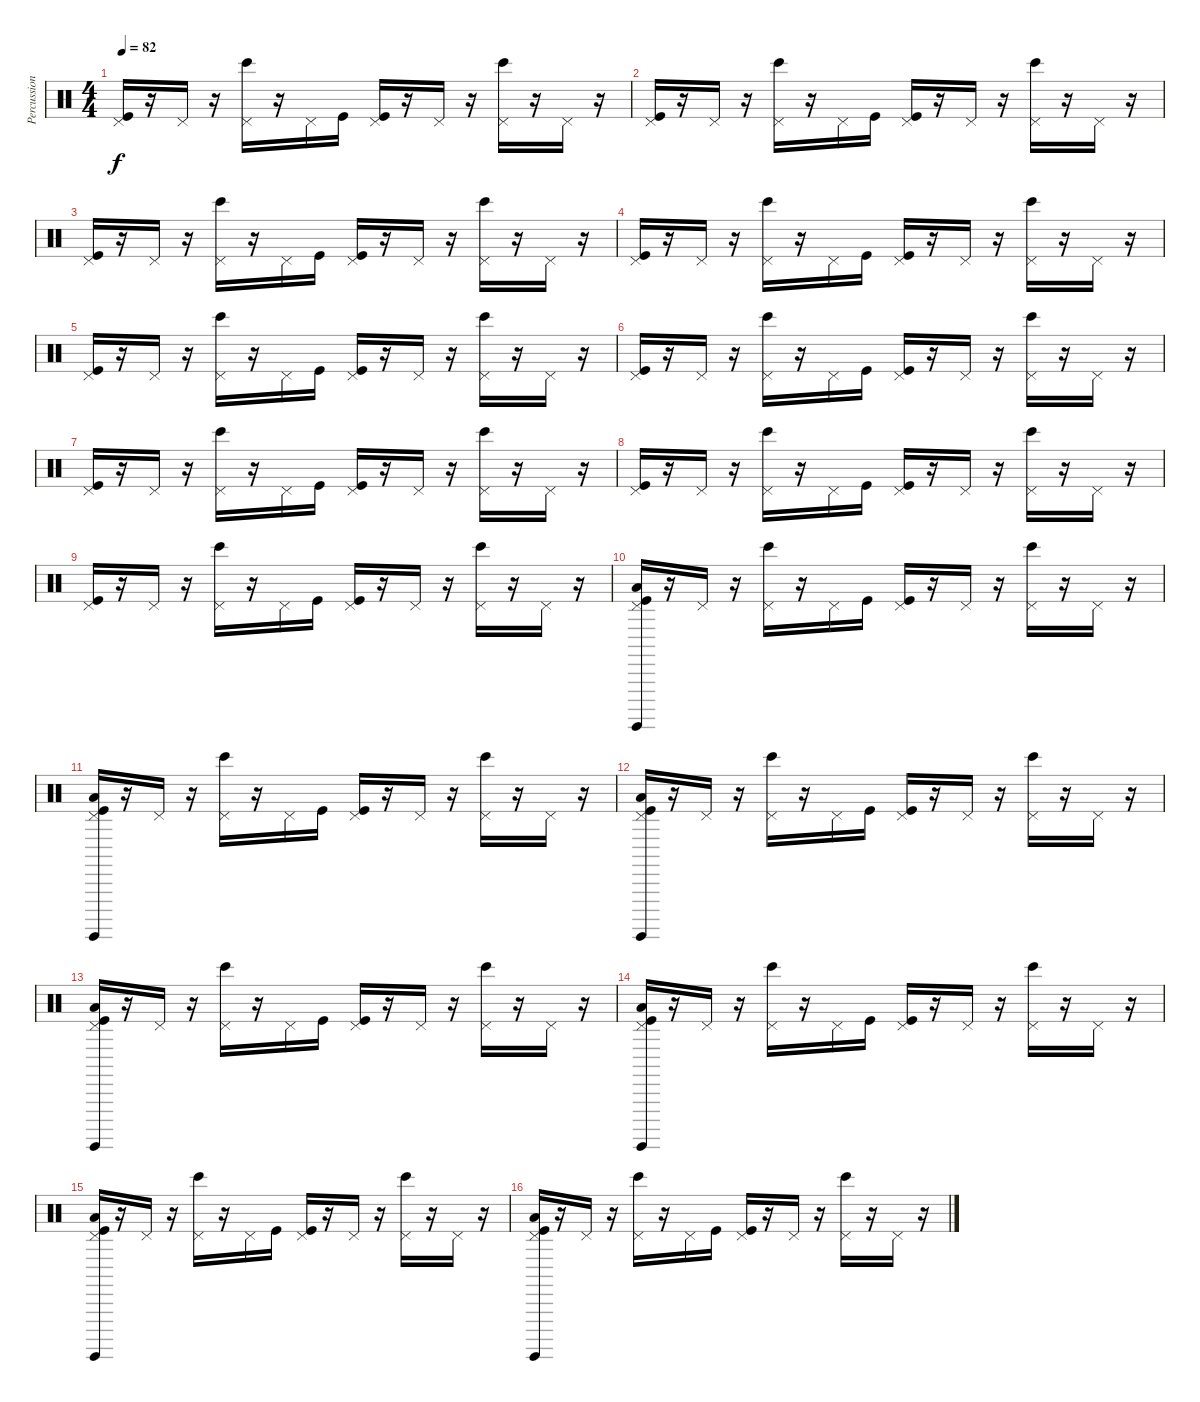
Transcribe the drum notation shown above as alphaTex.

\track ("Percussions" "Percussion") {instrument percussion}
\staff {score}
\articulation defaults
\ts (4 4)
\tempo 82
\clef neutral
\ks c
("Pedal Hi-Hat (hit)" "Kick (hit)").16{dy f} r.16 "Pedal Hi-Hat (hit)".16 r.16 ("Pedal Hi-Hat (hit)" "Bongo High (hit)").16 r.16 "Pedal Hi-Hat (hit)".16 "Kick (hit)".16 ("Pedal Hi-Hat (hit)" "Kick (hit)").16 r.16 "Pedal Hi-Hat (hit)".16 r.16 ("Pedal Hi-Hat (hit)" "Bongo High (hit)").16 r.16 "Pedal Hi-Hat (hit)".16 r.16 |
("Pedal Hi-Hat (hit)" "Kick (hit)").16 r.16 "Pedal Hi-Hat (hit)".16 r.16 ("Pedal Hi-Hat (hit)" "Bongo High (hit)").16 r.16 "Pedal Hi-Hat (hit)".16 "Kick (hit)".16 ("Pedal Hi-Hat (hit)" "Kick (hit)").16 r.16 "Pedal Hi-Hat (hit)".16 r.16 ("Pedal Hi-Hat (hit)" "Bongo High (hit)").16 r.16 "Pedal Hi-Hat (hit)".16 r.16 |
("Pedal Hi-Hat (hit)" "Kick (hit)").16 r.16 "Pedal Hi-Hat (hit)".16 r.16 ("Pedal Hi-Hat (hit)" "Bongo High (hit)").16 r.16 "Pedal Hi-Hat (hit)".16 "Kick (hit)".16 ("Pedal Hi-Hat (hit)" "Kick (hit)").16 r.16 "Pedal Hi-Hat (hit)".16 r.16 ("Pedal Hi-Hat (hit)" "Bongo High (hit)").16 r.16 "Pedal Hi-Hat (hit)".16 r.16 |
("Pedal Hi-Hat (hit)" "Kick (hit)").16 r.16 "Pedal Hi-Hat (hit)".16 r.16 ("Pedal Hi-Hat (hit)" "Bongo High (hit)").16 r.16 "Pedal Hi-Hat (hit)".16 "Kick (hit)".16 ("Pedal Hi-Hat (hit)" "Kick (hit)").16 r.16 "Pedal Hi-Hat (hit)".16 r.16 ("Pedal Hi-Hat (hit)" "Bongo High (hit)").16 r.16 "Pedal Hi-Hat (hit)".16 r.16 |
("Pedal Hi-Hat (hit)" "Kick (hit)").16 r.16 "Pedal Hi-Hat (hit)".16 r.16 ("Pedal Hi-Hat (hit)" "Bongo High (hit)").16 r.16 "Pedal Hi-Hat (hit)".16 "Kick (hit)".16 ("Pedal Hi-Hat (hit)" "Kick (hit)").16 r.16 "Pedal Hi-Hat (hit)".16 r.16 ("Pedal Hi-Hat (hit)" "Bongo High (hit)").16 r.16 "Pedal Hi-Hat (hit)".16 r.16 |
("Pedal Hi-Hat (hit)" "Kick (hit)").16 r.16 "Pedal Hi-Hat (hit)".16 r.16 ("Pedal Hi-Hat (hit)" "Bongo High (hit)").16 r.16 "Pedal Hi-Hat (hit)".16 "Kick (hit)".16 ("Pedal Hi-Hat (hit)" "Kick (hit)").16 r.16 "Pedal Hi-Hat (hit)".16 r.16 ("Pedal Hi-Hat (hit)" "Bongo High (hit)").16 r.16 "Pedal Hi-Hat (hit)".16 r.16 |
("Pedal Hi-Hat (hit)" "Kick (hit)").16 r.16 "Pedal Hi-Hat (hit)".16 r.16 ("Pedal Hi-Hat (hit)" "Bongo High (hit)").16 r.16 "Pedal Hi-Hat (hit)".16 "Kick (hit)".16 ("Pedal Hi-Hat (hit)" "Kick (hit)").16 r.16 "Pedal Hi-Hat (hit)".16 r.16 ("Pedal Hi-Hat (hit)" "Bongo High (hit)").16 r.16 "Pedal Hi-Hat (hit)".16 r.16 |
("Pedal Hi-Hat (hit)" "Kick (hit)").16 r.16 "Pedal Hi-Hat (hit)".16 r.16 ("Pedal Hi-Hat (hit)" "Bongo High (hit)").16 r.16 "Pedal Hi-Hat (hit)".16 "Kick (hit)".16 ("Pedal Hi-Hat (hit)" "Kick (hit)").16 r.16 "Pedal Hi-Hat (hit)".16 r.16 ("Pedal Hi-Hat (hit)" "Bongo High (hit)").16 r.16 "Pedal Hi-Hat (hit)".16 r.16 |
("Pedal Hi-Hat (hit)" "Kick (hit)").16 r.16 "Pedal Hi-Hat (hit)".16 r.16 ("Pedal Hi-Hat (hit)" "Bongo High (hit)").16 r.16 "Pedal Hi-Hat (hit)".16 "Kick (hit)".16 ("Pedal Hi-Hat (hit)" "Kick (hit)").16 r.16 "Pedal Hi-Hat (hit)".16 r.16 ("Pedal Hi-Hat (hit)" "Bongo High (hit)").16 r.16 "Pedal Hi-Hat (hit)".16 r.16 |
("Pedal Hi-Hat (hit)" "Low Floor Tom (hit)" "Surdo (hit)" "Kick (hit)").16 r.16 "Pedal Hi-Hat (hit)".16 r.16 ("Pedal Hi-Hat (hit)" "Bongo High (hit)").16 r.16 "Pedal Hi-Hat (hit)".16 "Kick (hit)".16 ("Pedal Hi-Hat (hit)" "Kick (hit)").16 r.16 "Pedal Hi-Hat (hit)".16 r.16 ("Pedal Hi-Hat (hit)" "Bongo High (hit)").16 r.16 "Pedal Hi-Hat (hit)".16 r.16 |
("Pedal Hi-Hat (hit)" "Low Floor Tom (hit)" "Surdo (hit)" "Kick (hit)").16 r.16 "Pedal Hi-Hat (hit)".16 r.16 ("Pedal Hi-Hat (hit)" "Bongo High (hit)").16 r.16 "Pedal Hi-Hat (hit)".16 "Kick (hit)".16 ("Pedal Hi-Hat (hit)" "Kick (hit)").16 r.16 "Pedal Hi-Hat (hit)".16 r.16 ("Pedal Hi-Hat (hit)" "Bongo High (hit)").16 r.16 "Pedal Hi-Hat (hit)".16 r.16 |
("Pedal Hi-Hat (hit)" "Low Floor Tom (hit)" "Surdo (hit)" "Kick (hit)").16 r.16 "Pedal Hi-Hat (hit)".16 r.16 ("Pedal Hi-Hat (hit)" "Bongo High (hit)").16 r.16 "Pedal Hi-Hat (hit)".16 "Kick (hit)".16 ("Pedal Hi-Hat (hit)" "Kick (hit)").16 r.16 "Pedal Hi-Hat (hit)".16 r.16 ("Pedal Hi-Hat (hit)" "Bongo High (hit)").16 r.16 "Pedal Hi-Hat (hit)".16 r.16 |
("Pedal Hi-Hat (hit)" "Low Floor Tom (hit)" "Surdo (hit)" "Kick (hit)").16 r.16 "Pedal Hi-Hat (hit)".16 r.16 ("Pedal Hi-Hat (hit)" "Bongo High (hit)").16 r.16 "Pedal Hi-Hat (hit)".16 "Kick (hit)".16 ("Pedal Hi-Hat (hit)" "Kick (hit)").16 r.16 "Pedal Hi-Hat (hit)".16 r.16 ("Pedal Hi-Hat (hit)" "Bongo High (hit)").16 r.16 "Pedal Hi-Hat (hit)".16 r.16 |
("Pedal Hi-Hat (hit)" "Low Floor Tom (hit)" "Surdo (hit)" "Kick (hit)").16 r.16 "Pedal Hi-Hat (hit)".16 r.16 ("Pedal Hi-Hat (hit)" "Bongo High (hit)").16 r.16 "Pedal Hi-Hat (hit)".16 "Kick (hit)".16 ("Pedal Hi-Hat (hit)" "Kick (hit)").16 r.16 "Pedal Hi-Hat (hit)".16 r.16 ("Pedal Hi-Hat (hit)" "Bongo High (hit)").16 r.16 "Pedal Hi-Hat (hit)".16 r.16 |
("Pedal Hi-Hat (hit)" "Low Floor Tom (hit)" "Surdo (hit)" "Kick (hit)").16 r.16 "Pedal Hi-Hat (hit)".16 r.16 ("Pedal Hi-Hat (hit)" "Bongo High (hit)").16 r.16 "Pedal Hi-Hat (hit)".16 "Kick (hit)".16 ("Pedal Hi-Hat (hit)" "Kick (hit)").16 r.16 "Pedal Hi-Hat (hit)".16 r.16 ("Pedal Hi-Hat (hit)" "Bongo High (hit)").16 r.16 "Pedal Hi-Hat (hit)".16 r.16 |
("Pedal Hi-Hat (hit)" "Low Floor Tom (hit)" "Surdo (hit)" "Kick (hit)").16 r.16 "Pedal Hi-Hat (hit)".16 r.16 ("Pedal Hi-Hat (hit)" "Bongo High (hit)").16 r.16 "Pedal Hi-Hat (hit)".16 "Kick (hit)".16 ("Pedal Hi-Hat (hit)" "Kick (hit)").16 r.16 "Pedal Hi-Hat (hit)".16 r.16 ("Pedal Hi-Hat (hit)" "Bongo High (hit)").16 r.16 "Pedal Hi-Hat (hit)".16 r.16
